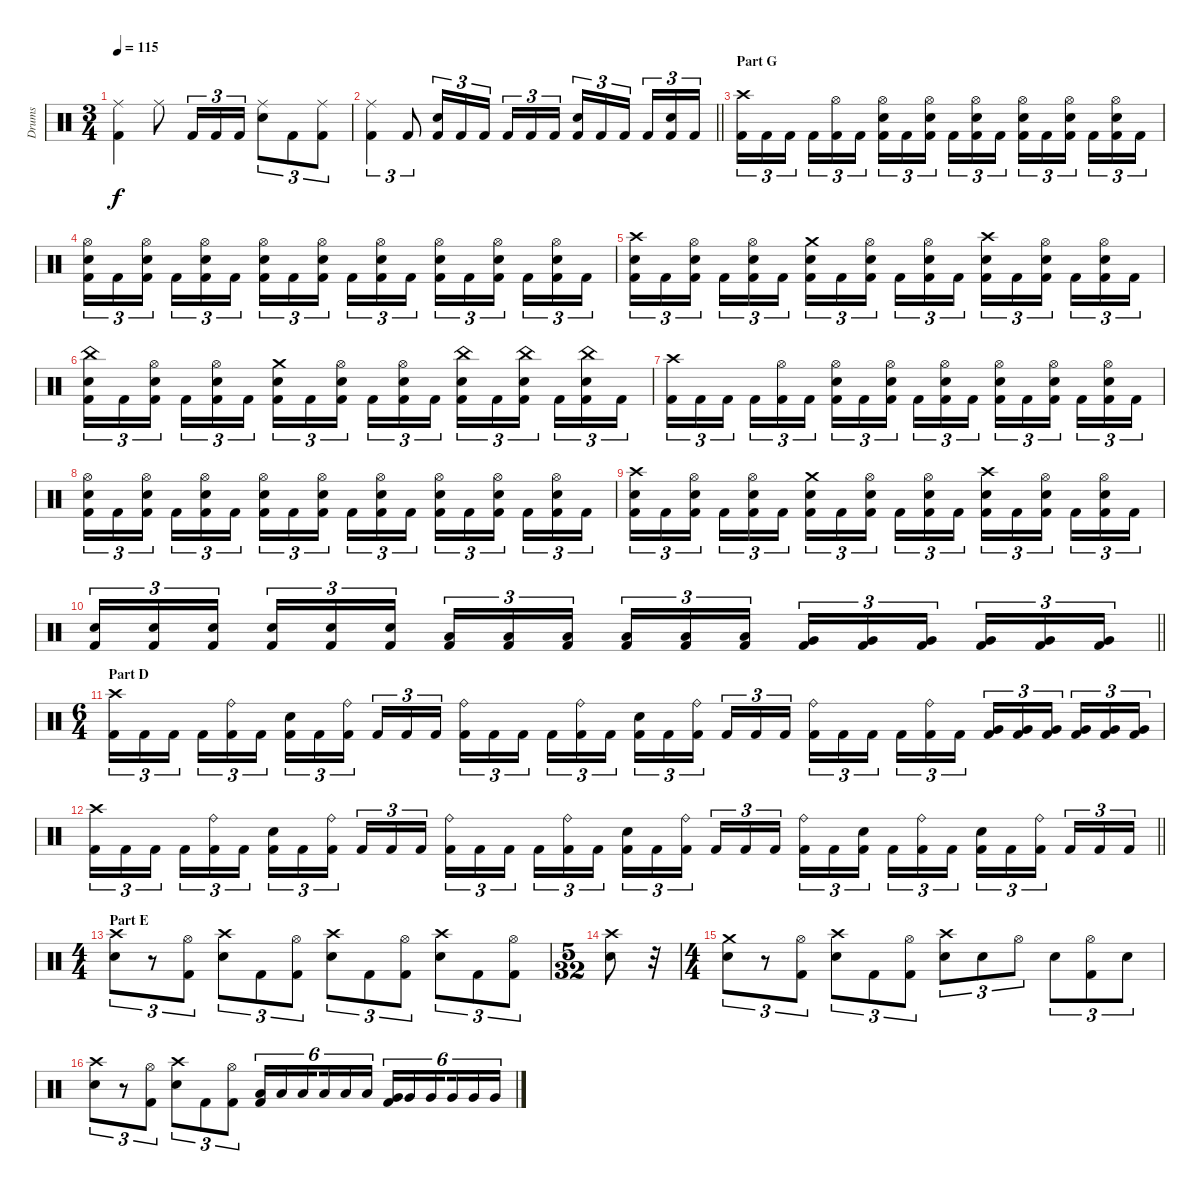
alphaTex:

\track ("Drums" "Drums") {instrument percussion}
\staff {score}
\articulation defaults
\ts (3 4)
\tempo 115
\clef neutral
\ks c
("Ride (middle)" "Kick (hit) 2").4{dy f} "Ride (middle)".8 "Kick (hit) 2".16{tu (3 2)} "Kick (hit) 2".16{tu (3 2)} "Kick (hit) 2".16{tu (3 2)} ("Snare (hit) 2" "Ride (middle)").8{tu (3 2)} "Kick (hit) 2".8{tu (3 2)} ("Kick (hit) 2" "Ride (middle)").8{tu (3 2)} |
\barLineRight lightlight
("Ride (middle)" "Kick (hit) 2").4{tu (3 2)} "Kick (hit) 2".8{tu (3 2)} ("Kick (hit) 2" "Snare (hit) 2").16{tu (3 2)} "Kick (hit) 2".16{tu (3 2)} "Kick (hit) 2".16{tu (3 2) beam splitsecondary} "Kick (hit) 2".16{tu (3 2)} "Kick (hit) 2".16{tu (3 2)} "Kick (hit) 2".16{tu (3 2)} ("Snare (hit) 2" "Kick (hit) 2").16{tu (3 2)} "Kick (hit) 2".16{tu (3 2)} "Kick (hit) 2".16{tu (3 2) beam splitsecondary} "Kick (hit) 2".16{tu (3 2)} ("Kick (hit) 2" "Snare (hit) 2").16{tu (3 2)} "Kick (hit) 2".16{tu (3 2)} |
\section ("" "Part G")
("Kick (hit) 2" "Crash high (hit)").16{tu (3 2)} "Kick (hit) 2".16{tu (3 2)} "Kick (hit) 2".16{tu (3 2) beam splitsecondary} "Kick (hit) 2".16{tu (3 2)} ("Kick (hit) 2" "Hi-Hat (open)").16{tu (3 2)} "Kick (hit) 2".16{tu (3 2)} ("Kick (hit) 2" "Snare (hit) 2" "Hi-Hat (open)").16{tu (3 2)} "Kick (hit) 2".16{tu (3 2)} ("Kick (hit) 2" "Snare (hit) 2" "Hi-Hat (open)").16{tu (3 2) beam splitsecondary} "Kick (hit) 2".16{tu (3 2)} ("Kick (hit) 2" "Snare (hit) 2" "Hi-Hat (open)").16{tu (3 2)} "Kick (hit) 2".16{tu (3 2)} ("Kick (hit) 2" "Snare (hit) 2" "Hi-Hat (open)").16{tu (3 2)} "Kick (hit) 2".16{tu (3 2)} ("Kick (hit) 2" "Snare (hit) 2" "Hi-Hat (open)").16{tu (3 2) beam splitsecondary} "Kick (hit) 2".16{tu (3 2)} ("Kick (hit) 2" "Snare (hit) 2" "Hi-Hat (open)").16{tu (3 2)} "Kick (hit) 2".16{tu (3 2)} |
("Kick (hit) 2" "Snare (hit) 2" "Hi-Hat (open)").16{tu (3 2)} "Kick (hit) 2".16{tu (3 2)} ("Kick (hit) 2" "Snare (hit) 2" "Hi-Hat (open)").16{tu (3 2) beam splitsecondary} "Kick (hit) 2".16{tu (3 2)} ("Kick (hit) 2" "Snare (hit) 2" "Hi-Hat (open)").16{tu (3 2)} "Kick (hit) 2".16{tu (3 2)} ("Kick (hit) 2" "Snare (hit) 2" "Hi-Hat (open)").16{tu (3 2)} "Kick (hit) 2".16{tu (3 2)} ("Kick (hit) 2" "Snare (hit) 2" "Hi-Hat (open)").16{tu (3 2) beam splitsecondary} "Kick (hit) 2".16{tu (3 2)} ("Kick (hit) 2" "Snare (hit) 2" "Hi-Hat (open)").16{tu (3 2)} "Kick (hit) 2".16{tu (3 2)} ("Kick (hit) 2" "Snare (hit) 2" "Hi-Hat (open)").16{tu (3 2)} "Kick (hit) 2".16{tu (3 2)} ("Kick (hit) 2" "Snare (hit) 2" "Hi-Hat (open)").16{tu (3 2) beam splitsecondary} "Kick (hit) 2".16{tu (3 2)} ("Kick (hit) 2" "Snare (hit) 2" "Hi-Hat (open)").16{tu (3 2)} "Kick (hit) 2".16{tu (3 2)} |
("Kick (hit) 2" "Snare (hit) 2" "Crash high (hit)").16{tu (3 2)} "Kick (hit) 2".16{tu (3 2)} ("Kick (hit) 2" "Snare (hit) 2" "Hi-Hat (open)").16{tu (3 2) beam splitsecondary} "Kick (hit) 2".16{tu (3 2)} ("Kick (hit) 2" "Snare (hit) 2" "Hi-Hat (open)").16{tu (3 2)} "Kick (hit) 2".16{tu (3 2)} ("Kick (hit) 2" "Snare (hit) 2" "Crash medium (hit)").16{tu (3 2)} "Kick (hit) 2".16{tu (3 2)} ("Kick (hit) 2" "Snare (hit) 2" "Hi-Hat (open)").16{tu (3 2) beam splitsecondary} "Kick (hit) 2".16{tu (3 2)} ("Kick (hit) 2" "Snare (hit) 2" "Hi-Hat (open)").16{tu (3 2)} "Kick (hit) 2".16{tu (3 2)} ("Kick (hit) 2" "Snare (hit) 2" "Crash high (hit)").16{tu (3 2)} "Kick (hit) 2".16{tu (3 2)} ("Kick (hit) 2" "Snare (hit) 2" "Hi-Hat (open)").16{tu (3 2) beam splitsecondary} "Kick (hit) 2".16{tu (3 2)} ("Kick (hit) 2" "Snare (hit) 2" "Hi-Hat (open)").16{tu (3 2)} "Kick (hit) 2".16{tu (3 2)} |
("Kick (hit) 2" "Snare (hit) 2" "China (hit)").16{tu (3 2)} "Kick (hit) 2".16{tu (3 2)} ("Kick (hit) 2" "Snare (hit) 2" "Hi-Hat (open)").16{tu (3 2) beam splitsecondary} "Kick (hit) 2".16{tu (3 2)} ("Kick (hit) 2" "Snare (hit) 2" "Hi-Hat (open)").16{tu (3 2)} "Kick (hit) 2".16{tu (3 2)} ("Kick (hit) 2" "Snare (hit) 2" "Crash medium (hit)").16{tu (3 2)} "Kick (hit) 2".16{tu (3 2)} ("Kick (hit) 2" "Snare (hit) 2" "Hi-Hat (open)").16{tu (3 2) beam splitsecondary} "Kick (hit) 2".16{tu (3 2)} ("Kick (hit) 2" "Snare (hit) 2" "Hi-Hat (open)").16{tu (3 2)} "Kick (hit) 2".16{tu (3 2)} ("Kick (hit) 2" "Snare (hit) 2" "China (hit)").16{tu (3 2)} "Kick (hit) 2".16{tu (3 2)} ("Kick (hit) 2" "Snare (hit) 2" "China (hit)").16{tu (3 2) beam splitsecondary} "Kick (hit) 2".16{tu (3 2)} ("Kick (hit) 2" "Snare (hit) 2" "China (hit)").16{tu (3 2)} "Kick (hit) 2".16{tu (3 2)} |
("Kick (hit) 2" "Crash high (hit)").16{tu (3 2)} "Kick (hit) 2".16{tu (3 2)} "Kick (hit) 2".16{tu (3 2) beam splitsecondary} "Kick (hit) 2".16{tu (3 2)} ("Kick (hit) 2" "Hi-Hat (open)").16{tu (3 2)} "Kick (hit) 2".16{tu (3 2)} ("Kick (hit) 2" "Snare (hit) 2" "Hi-Hat (open)").16{tu (3 2)} "Kick (hit) 2".16{tu (3 2)} ("Kick (hit) 2" "Snare (hit) 2" "Hi-Hat (open)").16{tu (3 2) beam splitsecondary} "Kick (hit) 2".16{tu (3 2)} ("Kick (hit) 2" "Snare (hit) 2" "Hi-Hat (open)").16{tu (3 2)} "Kick (hit) 2".16{tu (3 2)} ("Kick (hit) 2" "Snare (hit) 2" "Hi-Hat (open)").16{tu (3 2)} "Kick (hit) 2".16{tu (3 2)} ("Kick (hit) 2" "Snare (hit) 2" "Hi-Hat (open)").16{tu (3 2) beam splitsecondary} "Kick (hit) 2".16{tu (3 2)} ("Kick (hit) 2" "Snare (hit) 2" "Hi-Hat (open)").16{tu (3 2)} "Kick (hit) 2".16{tu (3 2)} |
("Kick (hit) 2" "Snare (hit) 2" "Hi-Hat (open)").16{tu (3 2)} "Kick (hit) 2".16{tu (3 2)} ("Kick (hit) 2" "Snare (hit) 2" "Hi-Hat (open)").16{tu (3 2) beam splitsecondary} "Kick (hit) 2".16{tu (3 2)} ("Kick (hit) 2" "Snare (hit) 2" "Hi-Hat (open)").16{tu (3 2)} "Kick (hit) 2".16{tu (3 2)} ("Kick (hit) 2" "Snare (hit) 2" "Hi-Hat (open)").16{tu (3 2)} "Kick (hit) 2".16{tu (3 2)} ("Kick (hit) 2" "Snare (hit) 2" "Hi-Hat (open)").16{tu (3 2) beam splitsecondary} "Kick (hit) 2".16{tu (3 2)} ("Kick (hit) 2" "Snare (hit) 2" "Hi-Hat (open)").16{tu (3 2)} "Kick (hit) 2".16{tu (3 2)} ("Kick (hit) 2" "Snare (hit) 2" "Hi-Hat (open)").16{tu (3 2)} "Kick (hit) 2".16{tu (3 2)} ("Kick (hit) 2" "Snare (hit) 2" "Hi-Hat (open)").16{tu (3 2) beam splitsecondary} "Kick (hit) 2".16{tu (3 2)} ("Kick (hit) 2" "Snare (hit) 2" "Hi-Hat (open)").16{tu (3 2)} "Kick (hit) 2".16{tu (3 2)} |
("Kick (hit) 2" "Snare (hit) 2" "Crash high (hit)").16{tu (3 2)} "Kick (hit) 2".16{tu (3 2)} ("Kick (hit) 2" "Snare (hit) 2" "Hi-Hat (open)").16{tu (3 2) beam splitsecondary} "Kick (hit) 2".16{tu (3 2)} ("Kick (hit) 2" "Snare (hit) 2" "Hi-Hat (open)").16{tu (3 2)} "Kick (hit) 2".16{tu (3 2)} ("Kick (hit) 2" "Snare (hit) 2" "Crash medium (hit)").16{tu (3 2)} "Kick (hit) 2".16{tu (3 2)} ("Kick (hit) 2" "Snare (hit) 2" "Hi-Hat (open)").16{tu (3 2) beam splitsecondary} "Kick (hit) 2".16{tu (3 2)} ("Kick (hit) 2" "Snare (hit) 2" "Hi-Hat (open)").16{tu (3 2)} "Kick (hit) 2".16{tu (3 2)} ("Kick (hit) 2" "Snare (hit) 2" "Crash high (hit)").16{tu (3 2)} "Kick (hit) 2".16{tu (3 2)} ("Kick (hit) 2" "Snare (hit) 2" "Hi-Hat (open)").16{tu (3 2) beam splitsecondary} "Kick (hit) 2".16{tu (3 2)} ("Kick (hit) 2" "Snare (hit) 2" "Hi-Hat (open)").16{tu (3 2)} "Kick (hit) 2".16{tu (3 2)} |
\barLineRight lightlight
("Kick (hit) 2" "Snare (hit) 2").16{tu (3 2)} ("Kick (hit) 2" "Snare (hit) 2").16{tu (3 2)} ("Kick (hit) 2" "Snare (hit) 2").16{tu (3 2) beam splitsecondary} ("Kick (hit) 2" "Snare (hit) 2").16{tu (3 2)} ("Kick (hit) 2" "Snare (hit) 2").16{tu (3 2)} ("Kick (hit) 2" "Snare (hit) 2").16{tu (3 2)} ("Kick (hit) 2" "Low Tom (hit)").16{tu (3 2)} ("Kick (hit) 2" "Low Tom (hit)").16{tu (3 2)} ("Kick (hit) 2" "Low Tom (hit)").16{tu (3 2) beam splitsecondary} ("Kick (hit) 2" "Low Tom (hit)").16{tu (3 2)} ("Kick (hit) 2" "Low Tom (hit)").16{tu (3 2)} ("Kick (hit) 2" "Low Tom (hit)").16{tu (3 2)} ("Kick (hit) 2" "Very Low Tom (hit)").16{tu (3 2)} ("Kick (hit) 2" "Very Low Tom (hit)").16{tu (3 2)} ("Kick (hit) 2" "Very Low Tom (hit)").16{tu (3 2) beam splitsecondary} ("Kick (hit) 2" "Very Low Tom (hit)").16{tu (3 2)} ("Kick (hit) 2" "Very Low Tom (hit)").16{tu (3 2)} ("Kick (hit) 2" "Very Low Tom (hit)").16{tu (3 2)} |
\ts (6 4)
\section ("" "Part D")
("Kick (hit) 2" "Crash high (hit)").16{tu (3 2)} "Kick (hit) 2".16{tu (3 2)} "Kick (hit) 2".16{tu (3 2) beam splitsecondary} "Kick (hit) 2".16{tu (3 2)} ("Kick (hit) 2" "Ride (bell)").16{tu (3 2)} "Kick (hit) 2".16{tu (3 2) beam splitsecondary} ("Kick (hit) 2" "Snare (hit) 2").16{tu (3 2)} "Kick (hit) 2".16{tu (3 2)} ("Kick (hit) 2" "Ride (bell)").16{tu (3 2) beam splitsecondary} "Kick (hit) 2".16{tu (3 2)} "Kick (hit) 2".16{tu (3 2)} "Kick (hit) 2".16{tu (3 2) beam splitsecondary} ("Kick (hit) 2" "Ride (bell)").16{tu (3 2)} "Kick (hit) 2".16{tu (3 2)} "Kick (hit) 2".16{tu (3 2) beam splitsecondary} "Kick (hit) 2".16{tu (3 2)} ("Kick (hit) 2" "Ride (bell)").16{tu (3 2)} "Kick (hit) 2".16{tu (3 2)} ("Kick (hit) 2" "Snare (hit) 2").16{tu (3 2)} "Kick (hit) 2".16{tu (3 2)} ("Kick (hit) 2" "Ride (bell)").16{tu (3 2) beam splitsecondary} "Kick (hit) 2".16{tu (3 2)} "Kick (hit) 2".16{tu (3 2)} "Kick (hit) 2".16{tu (3 2) beam splitsecondary} ("Kick (hit) 2" "Ride (bell)").16{tu (3 2)} "Kick (hit) 2".16{tu (3 2)} "Kick (hit) 2".16{tu (3 2) beam splitsecondary} "Kick (hit) 2".16{tu (3 2)} ("Kick (hit) 2" "Ride (bell)").16{tu (3 2)} "Kick (hit) 2".16{tu (3 2) beam splitsecondary} ("Very Low Tom (hit)" "Kick (hit) 2").16{tu (3 2)} ("Very Low Tom (hit)" "Kick (hit) 2").16{tu (3 2)} ("Very Low Tom (hit)" "Kick (hit) 2").16{tu (3 2) beam splitsecondary} ("Very Low Tom (hit)" "Kick (hit) 2").16{tu (3 2)} ("Very Low Tom (hit)" "Kick (hit) 2").16{tu (3 2)} ("Very Low Tom (hit)" "Kick (hit) 2").16{tu (3 2)} |
\barLineRight lightlight
("Kick (hit) 2" "Crash high (hit)").16{tu (3 2)} "Kick (hit) 2".16{tu (3 2)} "Kick (hit) 2".16{tu (3 2) beam splitsecondary} "Kick (hit) 2".16{tu (3 2)} ("Kick (hit) 2" "Ride (bell)").16{tu (3 2)} "Kick (hit) 2".16{tu (3 2) beam splitsecondary} ("Kick (hit) 2" "Snare (hit) 2").16{tu (3 2)} "Kick (hit) 2".16{tu (3 2)} ("Kick (hit) 2" "Ride (bell)").16{tu (3 2) beam splitsecondary} "Kick (hit) 2".16{tu (3 2)} "Kick (hit) 2".16{tu (3 2)} "Kick (hit) 2".16{tu (3 2) beam splitsecondary} ("Kick (hit) 2" "Ride (bell)").16{tu (3 2)} "Kick (hit) 2".16{tu (3 2)} "Kick (hit) 2".16{tu (3 2) beam splitsecondary} "Kick (hit) 2".16{tu (3 2)} ("Kick (hit) 2" "Ride (bell)").16{tu (3 2)} "Kick (hit) 2".16{tu (3 2)} ("Kick (hit) 2" "Snare (hit) 2").16{tu (3 2)} "Kick (hit) 2".16{tu (3 2)} ("Kick (hit) 2" "Ride (bell)").16{tu (3 2) beam splitsecondary} "Kick (hit) 2".16{tu (3 2)} "Kick (hit) 2".16{tu (3 2)} "Kick (hit) 2".16{tu (3 2) beam splitsecondary} ("Kick (hit) 2" "Ride (bell)").16{tu (3 2)} "Kick (hit) 2".16{tu (3 2)} ("Kick (hit) 2" "Snare (hit) 2").16{tu (3 2) beam splitsecondary} "Kick (hit) 2".16{tu (3 2)} ("Kick (hit) 2" "Ride (bell)").16{tu (3 2)} "Kick (hit) 2".16{tu (3 2) beam splitsecondary} ("Snare (hit) 2" "Kick (hit) 2").16{tu (3 2)} "Kick (hit) 2".16{tu (3 2)} ("Ride (bell)" "Kick (hit) 2").16{tu (3 2) beam splitsecondary} "Kick (hit) 2".16{tu (3 2)} "Kick (hit) 2".16{tu (3 2)} "Kick (hit) 2".16{tu (3 2)} |
\ts (4 4)
\section ("" "Part E")
("Crash high (hit)" "Snare (hit) 2").8{tu (3 2)} r.8{tu (3 2)} ("Hi-Hat (open)" "Kick (hit) 2").8{tu (3 2)} ("Crash high (hit)" "Snare (hit) 2").8{tu (3 2)} "Kick (hit) 2".8{tu (3 2)} ("Kick (hit) 2" "Hi-Hat (open)").8{tu (3 2)} ("Snare (hit) 2" "Crash high (hit)").8{tu (3 2)} "Kick (hit) 2".8{tu (3 2)} ("Kick (hit) 2" "Hi-Hat (open)").8{tu (3 2)} ("Snare (hit) 2" "Crash high (hit)").8{tu (3 2)} "Kick (hit) 2".8{tu (3 2)} ("Kick (hit) 2" "Hi-Hat (open)").8{tu (3 2)} |
\ts (5 32)
("Snare (hit) 2" "Crash high (hit)").8 r.32 |
\ts (4 4)
("Crash medium (hit)" "Snare (hit) 2").8{tu (3 2)} r.8{tu (3 2)} ("Hi-Hat (open)" "Kick (hit) 2").8{tu (3 2)} ("Crash high (hit)" "Snare (hit) 2").8{tu (3 2)} "Kick (hit) 2".8{tu (3 2)} ("Kick (hit) 2" "Hi-Hat (open)").8{tu (3 2)} ("Snare (hit) 2" "Crash high (hit)").8{tu (3 2)} "Snare (hit) 2".8{tu (3 2)} "Hi-Hat (open)".8{tu (3 2)} "Snare (hit) 2".8{tu (3 2)} ("Hi-Hat (open)" "Kick (hit) 2").8{tu (3 2)} "Snare (hit) 2".8{tu (3 2)} |
("Crash high (hit)" "Snare (hit) 2").8{tu (3 2)} r.8{tu (3 2)} ("Hi-Hat (open)" "Kick (hit) 2").8{tu (3 2)} ("Crash high (hit)" "Snare (hit) 2").8{tu (3 2)} "Kick (hit) 2".8{tu (3 2)} ("Kick (hit) 2" "Hi-Hat (open)").8{tu (3 2)} ("Kick (hit) 2" "Low Tom (hit)").16{tu (6 4)} "Low Tom (hit)".16{tu (6 4)} "Low Tom (hit)".16{tu (6 4) beam splitsecondary} "Low Tom (hit)".16{tu (6 4)} "Low Tom (hit)".16{tu (6 4)} "Low Tom (hit)".16{tu (6 4)} ("Kick (hit) 2" "Very Low Tom (hit)").16{tu (6 4)} "Very Low Tom (hit)".16{tu (6 4)} "Very Low Tom (hit)".16{tu (6 4) beam splitsecondary} "Very Low Tom (hit)".16{tu (6 4)} "Very Low Tom (hit)".16{tu (6 4)} "Very Low Tom (hit)".16{tu (6 4)}
